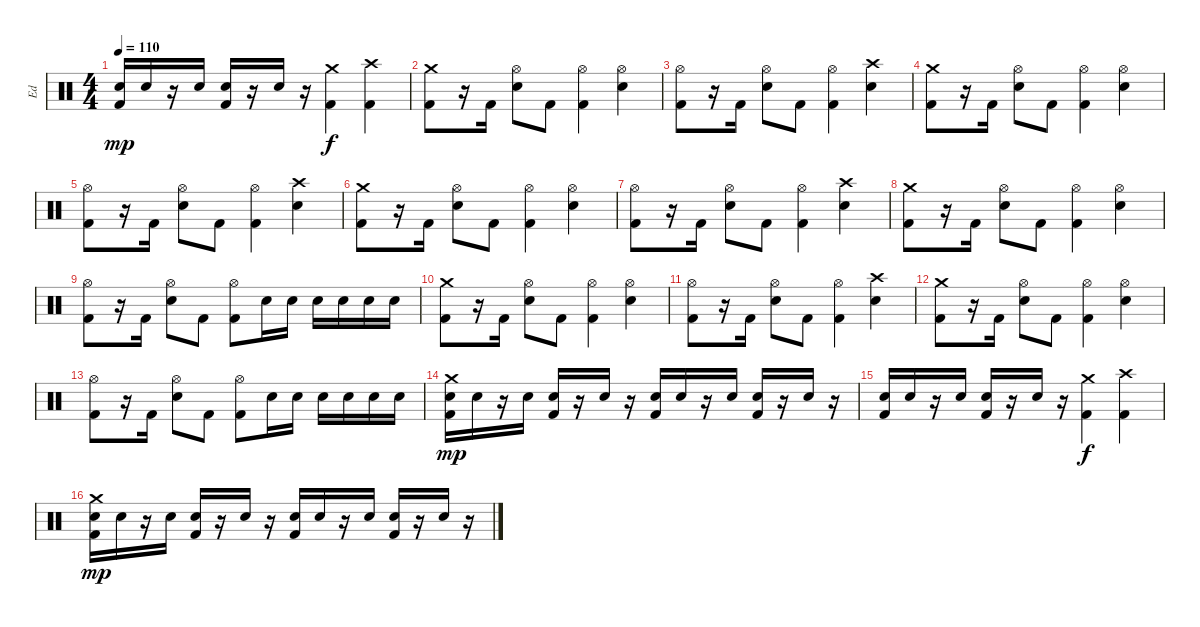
\track ("Ed" "Ed") {instrument percussion}
\staff {score}
\articulation defaults
\ts (4 4)
\tempo 110
\clef neutral
\ks c
("Electric Snare (hit)" "Kick (hit) 2").16{dy mp} "Electric Snare (hit)".16 r.16 "Electric Snare (hit)".16 ("Electric Snare (hit)" "Kick (hit) 2").16 r.16 "Electric Snare (hit)".16 r.16 ("Crash medium (hit)" "Kick (hit) 2").4{dy f} ("Crash high (hit)" "Kick (hit) 2").4 |
("Crash medium (hit)" "Kick (hit) 2").8 r.16 "Kick (hit) 2".16 ("Hi-Hat (open)" "Electric Snare (hit)").8 "Kick (hit) 2".8 ("Hi-Hat (open)" "Kick (hit) 2").4 ("Hi-Hat (open)" "Electric Snare (hit)").4 |
("Hi-Hat (open)" "Kick (hit) 2").8 r.16 "Kick (hit) 2".16 ("Hi-Hat (open)" "Electric Snare (hit)").8 "Kick (hit) 2".8 ("Hi-Hat (open)" "Kick (hit) 2").4 ("Crash high (hit)" "Electric Snare (hit)").4 |
("Crash medium (hit)" "Kick (hit) 2").8 r.16 "Kick (hit) 2".16 ("Hi-Hat (open)" "Electric Snare (hit)").8 "Kick (hit) 2".8 ("Hi-Hat (open)" "Kick (hit) 2").4 ("Hi-Hat (open)" "Electric Snare (hit)").4 |
("Hi-Hat (open)" "Kick (hit) 2").8 r.16 "Kick (hit) 2".16 ("Hi-Hat (open)" "Electric Snare (hit)").8 "Kick (hit) 2".8 ("Hi-Hat (open)" "Kick (hit) 2").4 ("Crash high (hit)" "Electric Snare (hit)").4 |
("Crash medium (hit)" "Kick (hit) 2").8 r.16 "Kick (hit) 2".16 ("Hi-Hat (open)" "Electric Snare (hit)").8 "Kick (hit) 2".8 ("Hi-Hat (open)" "Kick (hit) 2").4 ("Hi-Hat (open)" "Electric Snare (hit)").4 |
("Hi-Hat (open)" "Kick (hit) 2").8 r.16 "Kick (hit) 2".16 ("Hi-Hat (open)" "Electric Snare (hit)").8 "Kick (hit) 2".8 ("Hi-Hat (open)" "Kick (hit) 2").4 ("Crash high (hit)" "Electric Snare (hit)").4 |
("Crash medium (hit)" "Kick (hit) 2").8 r.16 "Kick (hit) 2".16 ("Hi-Hat (open)" "Electric Snare (hit)").8 "Kick (hit) 2".8 ("Hi-Hat (open)" "Kick (hit) 2").4 ("Hi-Hat (open)" "Electric Snare (hit)").4 |
("Hi-Hat (open)" "Kick (hit) 2").8 r.16 "Kick (hit) 2".16 ("Hi-Hat (open)" "Electric Snare (hit)").8 "Kick (hit) 2".8 ("Hi-Hat (open)" "Kick (hit) 2").8 "Electric Snare (hit)".16 "Electric Snare (hit)".16 "Electric Snare (hit)".16 "Electric Snare (hit)".16 "Electric Snare (hit)".16 "Electric Snare (hit)".16 |
("Crash medium (hit)" "Kick (hit) 2").8 r.16 "Kick (hit) 2".16 ("Hi-Hat (open)" "Electric Snare (hit)").8 "Kick (hit) 2".8 ("Hi-Hat (open)" "Kick (hit) 2").4 ("Hi-Hat (open)" "Electric Snare (hit)").4 |
("Hi-Hat (open)" "Kick (hit) 2").8 r.16 "Kick (hit) 2".16 ("Hi-Hat (open)" "Electric Snare (hit)").8 "Kick (hit) 2".8 ("Hi-Hat (open)" "Kick (hit) 2").4 ("Crash high (hit)" "Electric Snare (hit)").4 |
("Crash medium (hit)" "Kick (hit) 2").8 r.16 "Kick (hit) 2".16 ("Hi-Hat (open)" "Electric Snare (hit)").8 "Kick (hit) 2".8 ("Hi-Hat (open)" "Kick (hit) 2").4 ("Hi-Hat (open)" "Electric Snare (hit)").4 |
("Hi-Hat (open)" "Kick (hit) 2").8 r.16 "Kick (hit) 2".16 ("Hi-Hat (open)" "Electric Snare (hit)").8 "Kick (hit) 2".8 ("Hi-Hat (open)" "Kick (hit) 2").8 "Electric Snare (hit)".16 "Electric Snare (hit)".16 "Electric Snare (hit)".16 "Electric Snare (hit)".16 "Electric Snare (hit)".16 "Electric Snare (hit)".16 |
("Crash medium (hit)" "Electric Snare (hit)" "Kick (hit) 2").16{dy mp} "Electric Snare (hit)".16 r.16 "Electric Snare (hit)".16 ("Electric Snare (hit)" "Kick (hit) 2").16 r.16 "Electric Snare (hit)".16 r.16 ("Electric Snare (hit)" "Kick (hit) 2").16 "Electric Snare (hit)".16 r.16 "Electric Snare (hit)".16 ("Electric Snare (hit)" "Kick (hit) 2").16 r.16 "Electric Snare (hit)".16 r.16 |
("Electric Snare (hit)" "Kick (hit) 2").16 "Electric Snare (hit)".16 r.16 "Electric Snare (hit)".16 ("Electric Snare (hit)" "Kick (hit) 2").16 r.16 "Electric Snare (hit)".16 r.16 ("Crash medium (hit)" "Kick (hit) 2").4{dy f} ("Crash high (hit)" "Kick (hit) 2").4 |
("Crash medium (hit)" "Electric Snare (hit)" "Kick (hit) 2").16{dy mp} "Electric Snare (hit)".16 r.16 "Electric Snare (hit)".16 ("Electric Snare (hit)" "Kick (hit) 2").16 r.16 "Electric Snare (hit)".16 r.16 ("Electric Snare (hit)" "Kick (hit) 2").16 "Electric Snare (hit)".16 r.16 "Electric Snare (hit)".16 ("Electric Snare (hit)" "Kick (hit) 2").16 r.16 "Electric Snare (hit)".16 r.16
